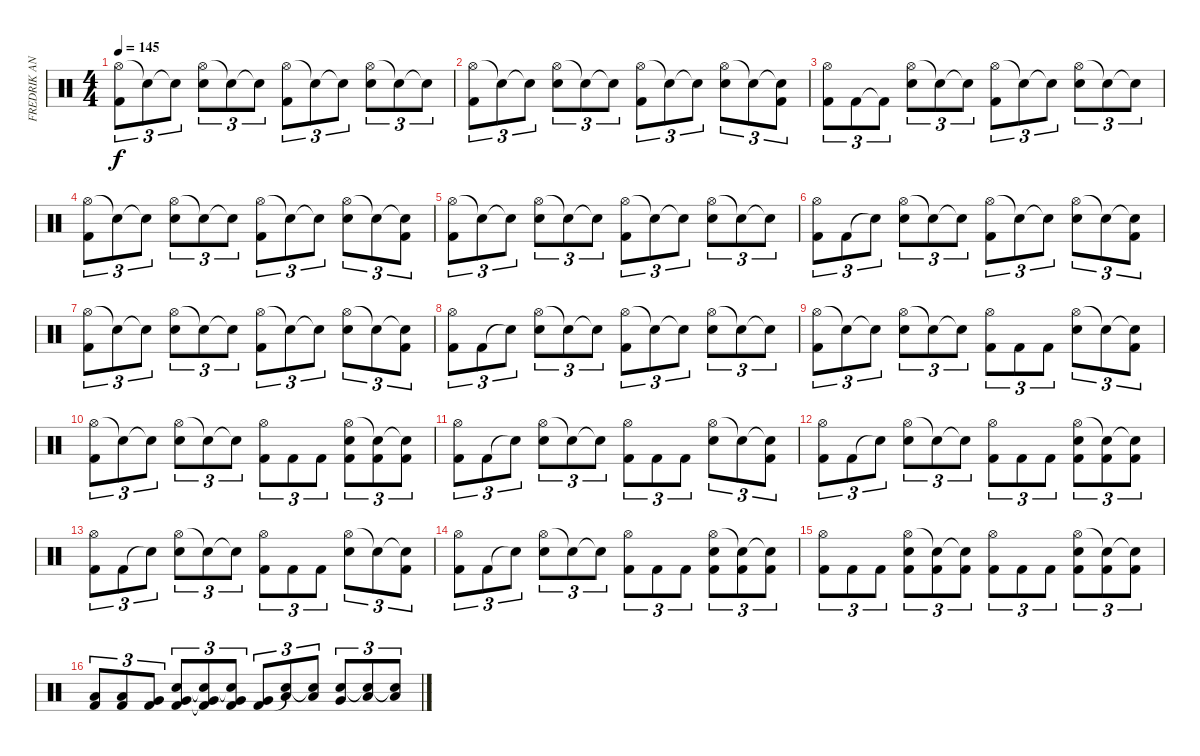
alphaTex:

\track ("FREDRIK ANDERSSON" "FREDRIK AN") {instrument percussion}
\staff {score}
\articulation defaults
\ts (4 4)
\tempo 145
\clef neutral
\ks c
("Hi-Hat (open)" "Kick (hit) 2").8{tu (3 2) dy f} "Snare (hit)"{t}.8{tu (3 2)} "Snare (hit)"{t}.8{tu (3 2)} ("Hi-Hat (open)" "Snare (hit) 2").8{tu (3 2)} "Snare (hit)"{t}.8{tu (3 2)} "Snare (hit)"{t}.8{tu (3 2)} ("Hi-Hat (open)" "Kick (hit) 2").8{tu (3 2)} "Snare (hit)"{t}.8{tu (3 2)} "Snare (hit)"{t}.8{tu (3 2)} ("Hi-Hat (open)" "Snare (hit) 2").8{tu (3 2)} "Snare (hit)"{t}.8{tu (3 2)} "Snare (hit)"{t}.8{tu (3 2)} |
("Hi-Hat (open)" "Kick (hit) 2").8{tu (3 2)} "Snare (hit)"{t}.8{tu (3 2)} "Snare (hit)"{t}.8{tu (3 2)} ("Hi-Hat (open)" "Snare (hit) 2").8{tu (3 2)} "Snare (hit)"{t}.8{tu (3 2)} "Snare (hit)"{t}.8{tu (3 2)} ("Hi-Hat (open)" "Kick (hit) 2").8{tu (3 2)} "Snare (hit)"{t}.8{tu (3 2)} "Snare (hit)"{t}.8{tu (3 2)} ("Hi-Hat (open)" "Snare (hit) 2").8{tu (3 2)} "Snare (hit)"{t}.8{tu (3 2)} ("Snare (hit)"{t} "Kick (hit) 2").8{tu (3 2)} |
("Hi-Hat (open)" "Kick (hit) 2").8{tu (3 2)} "Kick (hit) 2".8{tu (3 2)} "Kick (hit) 2"{t}.8{tu (3 2)} ("Hi-Hat (open)" "Snare (hit) 2").8{tu (3 2)} "Snare (hit)"{t}.8{tu (3 2)} "Snare (hit)"{t}.8{tu (3 2)} ("Hi-Hat (open)" "Kick (hit) 2").8{tu (3 2)} "Snare (hit)"{t}.8{tu (3 2)} "Snare (hit)"{t}.8{tu (3 2)} ("Hi-Hat (open)" "Snare (hit) 2").8{tu (3 2)} "Snare (hit)"{t}.8{tu (3 2)} "Snare (hit)"{t}.8{tu (3 2)} |
("Hi-Hat (open)" "Kick (hit) 2").8{tu (3 2)} "Snare (hit)"{t}.8{tu (3 2)} "Snare (hit)"{t}.8{tu (3 2)} ("Hi-Hat (open)" "Snare (hit) 2").8{tu (3 2)} "Snare (hit)"{t}.8{tu (3 2)} "Snare (hit)"{t}.8{tu (3 2)} ("Hi-Hat (open)" "Kick (hit) 2").8{tu (3 2)} "Snare (hit)"{t}.8{tu (3 2)} "Snare (hit)"{t}.8{tu (3 2)} ("Hi-Hat (open)" "Snare (hit) 2").8{tu (3 2)} "Snare (hit)"{t}.8{tu (3 2)} ("Snare (hit)"{t} "Kick (hit) 2").8{tu (3 2)} |
("Hi-Hat (open)" "Kick (hit) 2").8{tu (3 2)} "Snare (hit)"{t}.8{tu (3 2)} "Snare (hit)"{t}.8{tu (3 2)} ("Hi-Hat (open)" "Snare (hit) 2").8{tu (3 2)} "Snare (hit)"{t}.8{tu (3 2)} "Snare (hit)"{t}.8{tu (3 2)} ("Hi-Hat (open)" "Kick (hit) 2").8{tu (3 2)} "Snare (hit)"{t}.8{tu (3 2)} "Snare (hit)"{t}.8{tu (3 2)} ("Hi-Hat (open)" "Snare (hit) 2").8{tu (3 2)} "Snare (hit)"{t}.8{tu (3 2)} "Snare (hit)"{t}.8{tu (3 2)} |
("Hi-Hat (open)" "Kick (hit) 2").8{tu (3 2)} "Kick (hit) 2".8{tu (3 2)} "Snare (hit)"{t}.8{tu (3 2)} ("Hi-Hat (open)" "Snare (hit) 2").8{tu (3 2)} "Snare (hit)"{t}.8{tu (3 2)} "Snare (hit)"{t}.8{tu (3 2)} ("Hi-Hat (open)" "Kick (hit) 2").8{tu (3 2)} "Snare (hit)"{t}.8{tu (3 2)} "Snare (hit)"{t}.8{tu (3 2)} ("Hi-Hat (open)" "Snare (hit) 2").8{tu (3 2)} "Snare (hit)"{t}.8{tu (3 2)} ("Snare (hit)"{t} "Kick (hit) 2").8{tu (3 2)} |
("Hi-Hat (open)" "Kick (hit) 2").8{tu (3 2)} "Snare (hit)"{t}.8{tu (3 2)} "Snare (hit)"{t}.8{tu (3 2)} ("Hi-Hat (open)" "Snare (hit) 2").8{tu (3 2)} "Snare (hit)"{t}.8{tu (3 2)} "Snare (hit)"{t}.8{tu (3 2)} ("Hi-Hat (open)" "Kick (hit) 2").8{tu (3 2)} "Snare (hit)"{t}.8{tu (3 2)} "Snare (hit)"{t}.8{tu (3 2)} ("Hi-Hat (open)" "Snare (hit) 2").8{tu (3 2)} "Snare (hit)"{t}.8{tu (3 2)} ("Snare (hit)"{t} "Kick (hit) 2").8{tu (3 2)} |
("Hi-Hat (open)" "Kick (hit) 2").8{tu (3 2)} "Kick (hit) 2".8{tu (3 2)} "Snare (hit)"{t}.8{tu (3 2)} ("Hi-Hat (open)" "Snare (hit) 2").8{tu (3 2)} "Snare (hit)"{t}.8{tu (3 2)} "Snare (hit)"{t}.8{tu (3 2)} ("Hi-Hat (open)" "Kick (hit) 2").8{tu (3 2)} "Snare (hit)"{t}.8{tu (3 2)} "Snare (hit)"{t}.8{tu (3 2)} ("Hi-Hat (open)" "Snare (hit) 2").8{tu (3 2)} "Snare (hit)"{t}.8{tu (3 2)} "Snare (hit)"{t}.8{tu (3 2)} |
("Hi-Hat (open)" "Kick (hit) 2").8{tu (3 2)} "Snare (hit)"{t}.8{tu (3 2)} "Snare (hit)"{t}.8{tu (3 2)} ("Hi-Hat (open)" "Snare (hit) 2").8{tu (3 2)} "Snare (hit)"{t}.8{tu (3 2)} "Snare (hit)"{t}.8{tu (3 2)} ("Hi-Hat (open)" "Kick (hit) 2").8{tu (3 2)} "Kick (hit) 2".8{tu (3 2)} "Kick (hit) 2".8{tu (3 2)} ("Hi-Hat (open)" "Snare (hit) 2").8{tu (3 2)} "Snare (hit)"{t}.8{tu (3 2)} ("Snare (hit)"{t} "Kick (hit) 2").8{tu (3 2)} |
("Hi-Hat (open)" "Kick (hit) 2").8{tu (3 2)} "Snare (hit)"{t}.8{tu (3 2)} "Snare (hit)"{t}.8{tu (3 2)} ("Hi-Hat (open)" "Snare (hit) 2").8{tu (3 2)} "Snare (hit)"{t}.8{tu (3 2)} "Snare (hit)"{t}.8{tu (3 2)} ("Hi-Hat (open)" "Kick (hit) 2").8{tu (3 2)} "Kick (hit) 2".8{tu (3 2)} "Kick (hit) 2".8{tu (3 2)} ("Hi-Hat (open)" "Snare (hit) 2" "Kick (hit) 2").8{tu (3 2)} ("Snare (hit)"{t} "Kick (hit) 2").8{tu (3 2)} ("Snare (hit)"{t} "Kick (hit) 2").8{tu (3 2)} |
("Hi-Hat (open)" "Kick (hit) 2").8{tu (3 2)} "Kick (hit) 2".8{tu (3 2)} "Snare (hit)"{t}.8{tu (3 2)} ("Hi-Hat (open)" "Snare (hit) 2").8{tu (3 2)} "Snare (hit)"{t}.8{tu (3 2)} "Snare (hit)"{t}.8{tu (3 2)} ("Hi-Hat (open)" "Kick (hit) 2").8{tu (3 2)} "Kick (hit) 2".8{tu (3 2)} "Kick (hit) 2".8{tu (3 2)} ("Hi-Hat (open)" "Snare (hit) 2").8{tu (3 2)} "Snare (hit)"{t}.8{tu (3 2)} ("Snare (hit)"{t} "Kick (hit) 2").8{tu (3 2)} |
("Hi-Hat (open)" "Kick (hit) 2").8{tu (3 2)} "Kick (hit) 2".8{tu (3 2)} "Snare (hit)"{t}.8{tu (3 2)} ("Hi-Hat (open)" "Snare (hit) 2").8{tu (3 2)} "Snare (hit)"{t}.8{tu (3 2)} "Snare (hit)"{t}.8{tu (3 2)} ("Hi-Hat (open)" "Kick (hit) 2").8{tu (3 2)} "Kick (hit) 2".8{tu (3 2)} "Kick (hit) 2".8{tu (3 2)} ("Hi-Hat (open)" "Snare (hit) 2" "Kick (hit) 2").8{tu (3 2)} ("Snare (hit)"{t} "Kick (hit) 2").8{tu (3 2)} ("Snare (hit)"{t} "Kick (hit) 2").8{tu (3 2)} |
("Hi-Hat (open)" "Kick (hit) 2").8{tu (3 2)} "Kick (hit) 2".8{tu (3 2)} "Snare (hit)"{t}.8{tu (3 2)} ("Hi-Hat (open)" "Snare (hit) 2").8{tu (3 2)} "Snare (hit)"{t}.8{tu (3 2)} "Snare (hit)"{t}.8{tu (3 2)} ("Hi-Hat (open)" "Kick (hit) 2").8{tu (3 2)} "Kick (hit) 2".8{tu (3 2)} "Kick (hit) 2".8{tu (3 2)} ("Hi-Hat (open)" "Snare (hit) 2").8{tu (3 2)} "Snare (hit)"{t}.8{tu (3 2)} ("Snare (hit)"{t} "Kick (hit) 2").8{tu (3 2)} |
("Hi-Hat (open)" "Kick (hit) 2").8{tu (3 2)} "Kick (hit) 2".8{tu (3 2)} "Snare (hit)"{t}.8{tu (3 2)} ("Hi-Hat (open)" "Snare (hit) 2").8{tu (3 2)} "Snare (hit)"{t}.8{tu (3 2)} "Snare (hit)"{t}.8{tu (3 2)} ("Hi-Hat (open)" "Kick (hit) 2").8{tu (3 2)} "Kick (hit) 2".8{tu (3 2)} "Kick (hit) 2".8{tu (3 2)} ("Hi-Hat (open)" "Snare (hit) 2" "Kick (hit) 2").8{tu (3 2)} ("Snare (hit)"{t} "Kick (hit) 2").8{tu (3 2)} ("Snare (hit)"{t} "Kick (hit) 2").8{tu (3 2)} |
("Hi-Hat (open)" "Kick (hit) 2").8{tu (3 2)} "Kick (hit) 2".8{tu (3 2)} "Kick (hit) 2".8{tu (3 2)} ("Hi-Hat (open)" "Snare (hit) 2" "Kick (hit) 2").8{tu (3 2)} ("Snare (hit)"{t} "Kick (hit) 2").8{tu (3 2)} ("Snare (hit)"{t} "Kick (hit) 2").8{tu (3 2)} ("Hi-Hat (open)" "Kick (hit) 2").8{tu (3 2)} "Kick (hit) 2".8{tu (3 2)} "Kick (hit) 2".8{tu (3 2)} ("Hi-Hat (open)" "Snare (hit) 2" "Kick (hit) 2").8{tu (3 2)} ("Snare (hit)"{t} "Kick (hit) 2").8{tu (3 2)} ("Snare (hit)"{t} "Kick (hit) 2").8{tu (3 2)} |
("Kick (hit) 2" "Low Floor Tom (hit)").8{tu (3 2)} ("Kick (hit) 2" "Low Floor Tom (hit)").8{tu (3 2)} ("Kick (hit) 2" "Very Low Tom (hit)").8{tu (3 2)} ("Snare (hit) 2" "Kick (hit) 2" "Very Low Tom (hit)").8{tu (3 2)} ("Snare (hit)"{t} "Kick (hit) 2" "Very Low Tom (hit)"{t}).8{tu (3 2)} ("Snare (hit)"{t} "Kick (hit) 2" "Very Low Tom (hit)").8{tu (3 2)} ("Kick (hit) 2" "Very Low Tom (hit)").8{tu (3 2)} ("Snare (hit)"{t} "Low Tom (hit)").8{tu (3 2)} ("Snare (hit)"{t} "Low Tom (hit)").8{tu (3 2)} ("Snare (hit) 2" "Very Low Tom (hit)").8{tu (3 2)} ("Snare (hit)"{t} "Low Floor Tom (hit)").8{tu (3 2)} ("Snare (hit)"{t} "Low Floor Tom (hit)").8{tu (3 2)}
